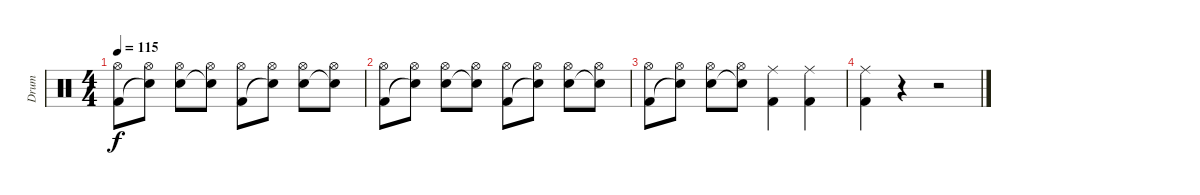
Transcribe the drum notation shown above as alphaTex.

\track ("Drum" "Drum") {instrument percussion}
\staff {score}
\articulation defaults
\ts (4 4)
\tempo 115
\clef neutral
\ks c
("Hi-Hat (open)" "Kick (hit) 2").8{dy f} ("Hi-Hat (open)" "Snare (hit)"{t}).8 ("Hi-Hat (open)" "Electric Snare (hit)").8 ("Hi-Hat (open)" "Snare (hit)"{t}).8 ("Hi-Hat (open)" "Kick (hit) 2").8 ("Hi-Hat (open)" "Snare (hit)"{t}).8 ("Hi-Hat (open)" "Electric Snare (hit)").8 ("Hi-Hat (open)" "Snare (hit)"{t}).8 |
("Hi-Hat (open)" "Kick (hit) 2").8 ("Hi-Hat (open)" "Snare (hit)"{t}).8 ("Hi-Hat (open)" "Electric Snare (hit)").8 ("Hi-Hat (open)" "Snare (hit)"{t}).8 ("Hi-Hat (open)" "Kick (hit) 2").8 ("Hi-Hat (open)" "Snare (hit)"{t}).8 ("Hi-Hat (open)" "Electric Snare (hit)").8 ("Hi-Hat (open)" "Snare (hit)"{t}).8 |
("Hi-Hat (open)" "Kick (hit) 2").8 ("Hi-Hat (open)" "Snare (hit)"{t}).8 ("Hi-Hat (open)" "Electric Snare (hit)").8 ("Hi-Hat (open)" "Snare (hit)"{t}).8 ("Ride (middle)" "Kick (hit) 2").4 ("Ride (middle)" "Kick (hit) 2").4 |
("Ride (middle)" "Kick (hit) 2").4 r.4 r.2
